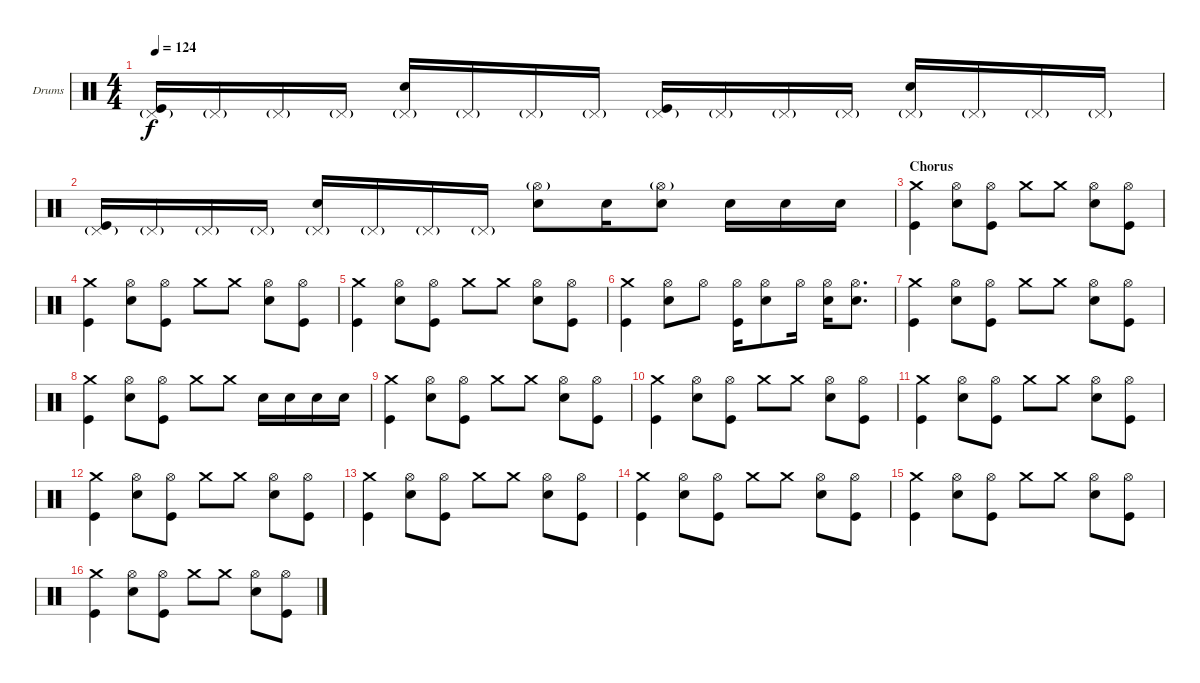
\bracketExtendMode groupsimilarinstruments
\firstSystemTrackNameOrientation horizontal
\otherSystemsTrackNameOrientation horizontal
\track ("Drumkit" "Drums") {instrument percussion}
\staff {score}
\articulation defaults
\ts (4 4)
\tempo 124
\clef neutral
\ks c
("Kick (hit)" "Pedal Hi-Hat (hit)"{g}).16{dy f} "Pedal Hi-Hat (hit)"{g}.16 "Pedal Hi-Hat (hit)"{g}.16 "Pedal Hi-Hat (hit)"{g}.16 ("Snare (hit) 2" "Pedal Hi-Hat (hit)"{g}).16 "Pedal Hi-Hat (hit)"{g}.16 "Pedal Hi-Hat (hit)"{g}.16 "Pedal Hi-Hat (hit)"{g}.16 ("Kick (hit)" "Pedal Hi-Hat (hit)"{g}).16 "Pedal Hi-Hat (hit)"{g}.16 "Pedal Hi-Hat (hit)"{g}.16 "Pedal Hi-Hat (hit)"{g}.16 ("Snare (hit) 2" "Pedal Hi-Hat (hit)"{g}).16 "Pedal Hi-Hat (hit)"{g}.16 "Pedal Hi-Hat (hit)"{g}.16 "Pedal Hi-Hat (hit)"{g}.16 |
("Kick (hit)" "Pedal Hi-Hat (hit)"{g}).16 "Pedal Hi-Hat (hit)"{g}.16 "Pedal Hi-Hat (hit)"{g}.16 "Pedal Hi-Hat (hit)"{g}.16 ("Snare (hit) 2" "Pedal Hi-Hat (hit)"{g}).16 "Pedal Hi-Hat (hit)"{g}.16 "Pedal Hi-Hat (hit)"{g}.16 "Pedal Hi-Hat (hit)"{g}.16 ("Snare (hit) 2" "Hi-Hat (open)"{g}).8 "Snare (hit) 2".16 ("Snare (hit) 2" "Hi-Hat (open)"{g}).8 "Snare (hit) 2".16 "Snare (hit) 2".16 "Snare (hit) 2".16 |
\section ("" "Chorus")
("Kick (hit)" "Crash medium (hit)").4 ("Snare (hit) 2" "Hi-Hat (open)").8 ("Kick (hit)" "Hi-Hat (open)").8 "Crash medium (hit)".8 "Crash medium (hit)".8 ("Snare (hit) 2" "Hi-Hat (open)").8 ("Kick (hit)" "Hi-Hat (open)").8 |
("Kick (hit)" "Crash medium (hit)").4 ("Snare (hit) 2" "Hi-Hat (open)").8 ("Kick (hit)" "Hi-Hat (open)").8 "Crash medium (hit)".8 "Crash medium (hit)".8 ("Snare (hit) 2" "Hi-Hat (open)").8 ("Kick (hit)" "Hi-Hat (open)").8 |
("Kick (hit)" "Crash medium (hit)").4 ("Snare (hit) 2" "Hi-Hat (open)").8 ("Kick (hit)" "Hi-Hat (open)").8 "Crash medium (hit)".8 "Crash medium (hit)".8 ("Snare (hit) 2" "Hi-Hat (open)").8 ("Kick (hit)" "Hi-Hat (open)").8 |
("Kick (hit)" "Crash medium (hit)").4 ("Snare (hit) 2" "Hi-Hat (open)").8 "Hi-Hat (open)".8 ("Kick (hit)" "Hi-Hat (open)").16 ("Snare (hit) 2" "Hi-Hat (open)").8 "Hi-Hat (open)".16 ("Snare (hit) 2" "Hi-Hat (open)").16 ("Snare (hit) 2" "Hi-Hat (open)").8{d} |
("Kick (hit)" "Crash medium (hit)").4 ("Snare (hit) 2" "Hi-Hat (open)").8 ("Kick (hit)" "Hi-Hat (open)").8 "Crash medium (hit)".8 "Crash medium (hit)".8 ("Snare (hit) 2" "Hi-Hat (open)").8 ("Kick (hit)" "Hi-Hat (open)").8 |
("Kick (hit)" "Crash medium (hit)").4 ("Snare (hit) 2" "Hi-Hat (open)").8 ("Kick (hit)" "Hi-Hat (open)").8 "Crash medium (hit)".8 "Crash medium (hit)".8 "Snare (hit) 2".16 "Snare (hit) 2".16 "Snare (hit) 2".16 "Snare (hit) 2".16 |
("Kick (hit)" "Crash medium (hit)").4 ("Snare (hit) 2" "Hi-Hat (open)").8 ("Kick (hit)" "Hi-Hat (open)").8 "Crash medium (hit)".8 "Crash medium (hit)".8 ("Snare (hit) 2" "Hi-Hat (open)").8 ("Kick (hit)" "Hi-Hat (open)").8 |
("Kick (hit)" "Crash medium (hit)").4 ("Snare (hit) 2" "Hi-Hat (open)").8 ("Kick (hit)" "Hi-Hat (open)").8 "Crash medium (hit)".8 "Crash medium (hit)".8 ("Snare (hit) 2" "Hi-Hat (open)").8 ("Kick (hit)" "Hi-Hat (open)").8 |
("Kick (hit)" "Crash medium (hit)").4 ("Snare (hit) 2" "Hi-Hat (open)").8 ("Kick (hit)" "Hi-Hat (open)").8 "Crash medium (hit)".8 "Crash medium (hit)".8 ("Snare (hit) 2" "Hi-Hat (open)").8 ("Kick (hit)" "Hi-Hat (open)").8 |
("Kick (hit)" "Crash medium (hit)").4 ("Snare (hit) 2" "Hi-Hat (open)").8 ("Kick (hit)" "Hi-Hat (open)").8 "Crash medium (hit)".8 "Crash medium (hit)".8 ("Snare (hit) 2" "Hi-Hat (open)").8 ("Kick (hit)" "Hi-Hat (open)").8 |
("Kick (hit)" "Crash medium (hit)").4 ("Snare (hit) 2" "Hi-Hat (open)").8 ("Kick (hit)" "Hi-Hat (open)").8 "Crash medium (hit)".8 "Crash medium (hit)".8 ("Snare (hit) 2" "Hi-Hat (open)").8 ("Kick (hit)" "Hi-Hat (open)").8 |
("Kick (hit)" "Crash medium (hit)").4 ("Snare (hit) 2" "Hi-Hat (open)").8 ("Kick (hit)" "Hi-Hat (open)").8 "Crash medium (hit)".8 "Crash medium (hit)".8 ("Snare (hit) 2" "Hi-Hat (open)").8 ("Kick (hit)" "Hi-Hat (open)").8 |
("Kick (hit)" "Crash medium (hit)").4 ("Snare (hit) 2" "Hi-Hat (open)").8 ("Kick (hit)" "Hi-Hat (open)").8 "Crash medium (hit)".8 "Crash medium (hit)".8 ("Snare (hit) 2" "Hi-Hat (open)").8 ("Kick (hit)" "Hi-Hat (open)").8 |
("Kick (hit)" "Crash medium (hit)").4 ("Snare (hit) 2" "Hi-Hat (open)").8 ("Kick (hit)" "Hi-Hat (open)").8 "Crash medium (hit)".8 "Crash medium (hit)".8 ("Snare (hit) 2" "Hi-Hat (open)").8 ("Kick (hit)" "Hi-Hat (open)").8
